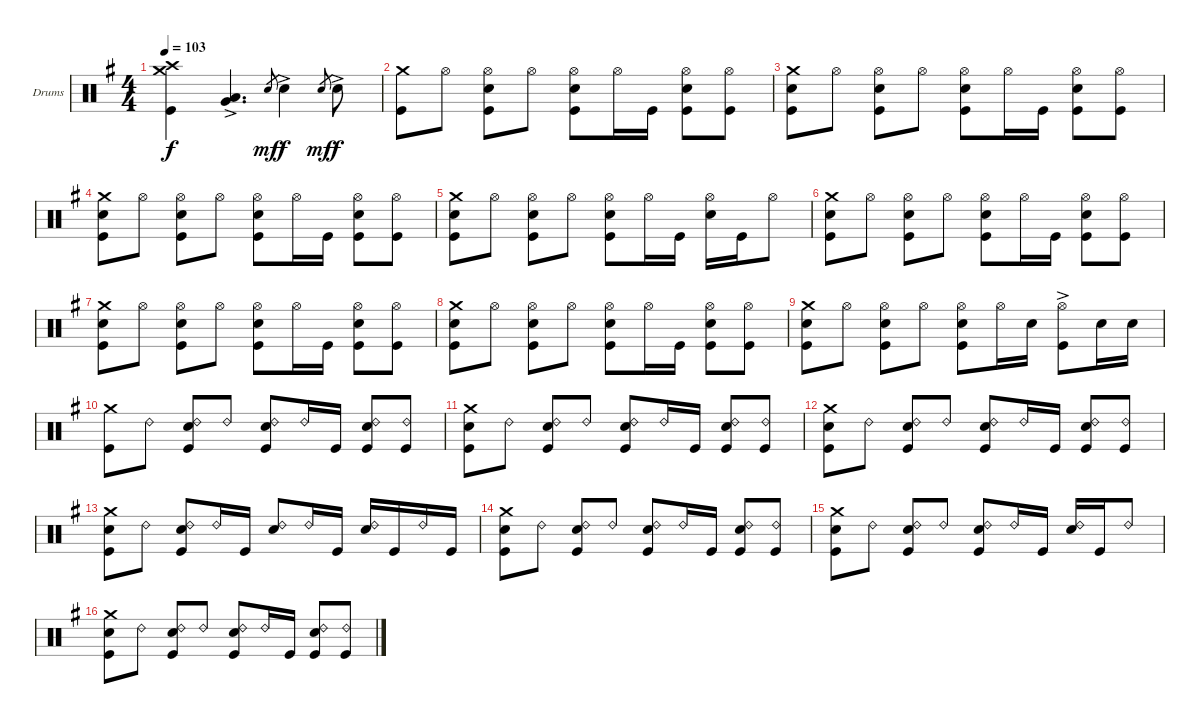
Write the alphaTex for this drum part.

\bracketExtendMode groupsimilarinstruments
\firstSystemTrackNameOrientation horizontal
\otherSystemsTrackNameOrientation horizontal
\track ("Drumkit" "Drums") {instrument percussion}
\staff {score}
\articulation defaults
\ts (4 4)
\tempo 103
\clef neutral
\ks eminor
("Crash medium (hit)" "Crash high (hit)" "Kick (hit)").4{dy f} ("Low Tom (hit)"{ac} "Very Low Tom (hit)"{ac}).4{d} "Snare (hit) 2".8{gr dy mf} "Snare (hit) 2"{ac}.4{dy f} "Snare (hit) 2".8{gr dy mf} "Snare (hit) 2"{ac}.8{dy f} |
("Crash medium (hit)" "Kick (hit)").8 "Hi-Hat (open)".8 ("Hi-Hat (open)" "Snare (hit) 2" "Kick (hit)").8 "Hi-Hat (open)".8 ("Hi-Hat (open)" "Snare (hit) 2" "Kick (hit)").8 "Hi-Hat (open)".16 "Kick (hit)".16 ("Hi-Hat (open)" "Snare (hit) 2" "Kick (hit)").8 ("Hi-Hat (open)" "Kick (hit)").8 |
("Crash medium (hit)" "Snare (hit) 2" "Kick (hit)").8 "Hi-Hat (open)".8 ("Hi-Hat (open)" "Snare (hit) 2" "Kick (hit)").8 "Hi-Hat (open)".8 ("Hi-Hat (open)" "Snare (hit) 2" "Kick (hit)").8 "Hi-Hat (open)".16 "Kick (hit)".16 ("Hi-Hat (open)" "Snare (hit) 2" "Kick (hit)").8 ("Hi-Hat (open)" "Kick (hit)").8 |
("Crash medium (hit)" "Snare (hit) 2" "Kick (hit)").8 "Hi-Hat (open)".8 ("Hi-Hat (open)" "Snare (hit) 2" "Kick (hit)").8 "Hi-Hat (open)".8 ("Hi-Hat (open)" "Snare (hit) 2" "Kick (hit)").8 "Hi-Hat (open)".16 "Kick (hit)".16 ("Hi-Hat (open)" "Snare (hit) 2" "Kick (hit)").8 ("Hi-Hat (open)" "Kick (hit)").8 |
("Crash medium (hit)" "Snare (hit) 2" "Kick (hit)").8 "Hi-Hat (open)".8 ("Hi-Hat (open)" "Snare (hit) 2" "Kick (hit)").8 "Hi-Hat (open)".8 ("Hi-Hat (open)" "Snare (hit) 2" "Kick (hit)").8 "Hi-Hat (open)".16 "Kick (hit)".16 ("Hi-Hat (open)" "Snare (hit) 2").16 "Kick (hit)".16 "Hi-Hat (open)".8 |
("Crash medium (hit)" "Snare (hit) 2" "Kick (hit)").8 "Hi-Hat (open)".8 ("Hi-Hat (open)" "Snare (hit) 2" "Kick (hit)").8 "Hi-Hat (open)".8 ("Hi-Hat (open)" "Snare (hit) 2" "Kick (hit)").8 "Hi-Hat (open)".16 "Kick (hit)".16 ("Hi-Hat (open)" "Snare (hit) 2" "Kick (hit)").8 ("Hi-Hat (open)" "Kick (hit)").8 |
("Crash medium (hit)" "Snare (hit) 2" "Kick (hit)").8 "Hi-Hat (open)".8 ("Hi-Hat (open)" "Snare (hit) 2" "Kick (hit)").8 "Hi-Hat (open)".8 ("Hi-Hat (open)" "Snare (hit) 2" "Kick (hit)").8 "Hi-Hat (open)".16 "Kick (hit)".16 ("Hi-Hat (open)" "Snare (hit) 2" "Kick (hit)").8 ("Hi-Hat (open)" "Kick (hit)").8 |
("Crash medium (hit)" "Snare (hit) 2" "Kick (hit)").8 "Hi-Hat (open)".8 ("Hi-Hat (open)" "Snare (hit) 2" "Kick (hit)").8 "Hi-Hat (open)".8 ("Hi-Hat (open)" "Snare (hit) 2" "Kick (hit)").8 "Hi-Hat (open)".16 "Kick (hit)".16 ("Hi-Hat (open)" "Snare (hit) 2" "Kick (hit)").8 ("Hi-Hat (open)" "Kick (hit)").8 |
("Crash medium (hit)" "Snare (hit) 2" "Kick (hit)").8 "Hi-Hat (open)".8 ("Hi-Hat (open)" "Snare (hit) 2" "Kick (hit)").8 "Hi-Hat (open)".8 ("Hi-Hat (open)" "Snare (hit) 2" "Kick (hit)").8 "Hi-Hat (open)".16 "Snare (hit) 2".16 ("Hi-Hat (open)"{ac} "Kick (hit)").8 "Snare (hit) 2".16 "Snare (hit) 2".16 |
("Crash medium (hit)" "Kick (hit)").8 "Ride (bell) 2".8 ("Ride (bell) 2" "Snare (hit) 2" "Kick (hit)").8 "Ride (bell) 2".8 ("Ride (bell) 2" "Snare (hit) 2" "Kick (hit)").8 "Ride (bell) 2".16 "Kick (hit)".16 ("Ride (bell) 2" "Snare (hit) 2" "Kick (hit)").8 ("Ride (bell) 2" "Kick (hit)").8 |
("Crash medium (hit)" "Snare (hit) 2" "Kick (hit)").8 "Ride (bell) 2".8 ("Ride (bell) 2" "Snare (hit) 2" "Kick (hit)").8 "Ride (bell) 2".8 ("Ride (bell) 2" "Snare (hit) 2" "Kick (hit)").8 "Ride (bell) 2".16 "Kick (hit)".16 ("Ride (bell) 2" "Snare (hit) 2" "Kick (hit)").8 ("Ride (bell) 2" "Kick (hit)").8 |
("Crash medium (hit)" "Snare (hit) 2" "Kick (hit)").8 "Ride (bell) 2".8 ("Ride (bell) 2" "Snare (hit) 2" "Kick (hit)").8 "Ride (bell) 2".8 ("Ride (bell) 2" "Snare (hit) 2" "Kick (hit)").8 "Ride (bell) 2".16 "Kick (hit)".16 ("Ride (bell) 2" "Snare (hit) 2" "Kick (hit)").8 ("Ride (bell) 2" "Kick (hit)").8 |
("Crash medium (hit)" "Snare (hit) 2" "Kick (hit)").8 "Ride (bell) 2".8 ("Ride (bell) 2" "Snare (hit) 2" "Kick (hit)").8 "Ride (bell) 2".16 "Kick (hit)".16 ("Ride (bell) 2" "Snare (hit) 2").8 "Ride (bell) 2".16 "Kick (hit)".16 ("Ride (bell) 2" "Snare (hit) 2").16 "Kick (hit)".16 "Ride (bell) 2".16 "Kick (hit)".16 |
("Crash medium (hit)" "Snare (hit) 2" "Kick (hit)").8 "Ride (bell) 2".8 ("Ride (bell) 2" "Snare (hit) 2" "Kick (hit)").8 "Ride (bell) 2".8 ("Ride (bell) 2" "Snare (hit) 2" "Kick (hit)").8 "Ride (bell) 2".16 "Kick (hit)".16 ("Ride (bell) 2" "Snare (hit) 2" "Kick (hit)").8 ("Ride (bell) 2" "Kick (hit)").8 |
("Crash medium (hit)" "Snare (hit) 2" "Kick (hit)").8 "Ride (bell) 2".8 ("Ride (bell) 2" "Snare (hit) 2" "Kick (hit)").8 "Ride (bell) 2".8 ("Ride (bell) 2" "Snare (hit) 2" "Kick (hit)").8 "Ride (bell) 2".16 "Kick (hit)".16 ("Ride (bell) 2" "Snare (hit) 2").16 "Kick (hit)".16 "Ride (bell) 2".8 |
("Crash medium (hit)" "Snare (hit) 2" "Kick (hit)").8 "Ride (bell) 2".8 ("Ride (bell) 2" "Snare (hit) 2" "Kick (hit)").8 "Ride (bell) 2".8 ("Ride (bell) 2" "Snare (hit) 2" "Kick (hit)").8 "Ride (bell) 2".16 "Kick (hit)".16 ("Ride (bell) 2" "Snare (hit) 2" "Kick (hit)").8 ("Ride (bell) 2" "Kick (hit)").8
